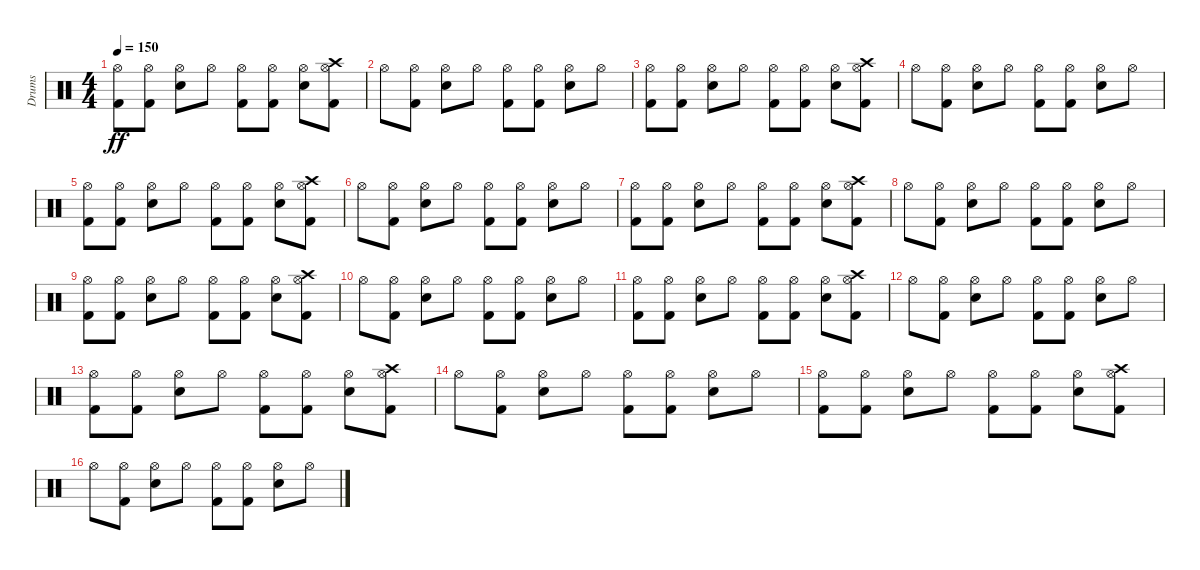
\track ("Drums" "Drums") {instrument percussion}
\staff {score}
\articulation defaults
\ts (4 4)
\tempo 150
\clef neutral
\ks c
("Kick (hit) 2" "Hi-Hat (open)").8{dy ff} ("Kick (hit) 2" "Hi-Hat (open)").8 ("Snare (hit) 2" "Hi-Hat (open)").8 "Hi-Hat (open)".8 ("Kick (hit) 2" "Hi-Hat (open)").8 ("Kick (hit) 2" "Hi-Hat (open)").8 ("Snare (hit) 2" "Hi-Hat (open)").8 ("Kick (hit) 2" "Hi-Hat (open)" "Crash high (hit)").8 |
"Hi-Hat (open)".8 ("Kick (hit) 2" "Hi-Hat (open)").8 ("Snare (hit) 2" "Hi-Hat (open)").8 "Hi-Hat (open)".8 ("Kick (hit) 2" "Hi-Hat (open)").8 ("Kick (hit) 2" "Hi-Hat (open)").8 ("Snare (hit) 2" "Hi-Hat (open)").8 "Hi-Hat (open)".8 |
("Kick (hit) 2" "Hi-Hat (open)").8 ("Kick (hit) 2" "Hi-Hat (open)").8 ("Snare (hit) 2" "Hi-Hat (open)").8 "Hi-Hat (open)".8 ("Kick (hit) 2" "Hi-Hat (open)").8 ("Kick (hit) 2" "Hi-Hat (open)").8 ("Snare (hit) 2" "Hi-Hat (open)").8 ("Kick (hit) 2" "Hi-Hat (open)" "Crash high (hit)").8 |
"Hi-Hat (open)".8 ("Kick (hit) 2" "Hi-Hat (open)").8 ("Snare (hit) 2" "Hi-Hat (open)").8 "Hi-Hat (open)".8 ("Kick (hit) 2" "Hi-Hat (open)").8 ("Kick (hit) 2" "Hi-Hat (open)").8 ("Snare (hit) 2" "Hi-Hat (open)").8 "Hi-Hat (open)".8 |
("Kick (hit) 2" "Hi-Hat (open)").8 ("Kick (hit) 2" "Hi-Hat (open)").8 ("Snare (hit) 2" "Hi-Hat (open)").8 "Hi-Hat (open)".8 ("Kick (hit) 2" "Hi-Hat (open)").8 ("Kick (hit) 2" "Hi-Hat (open)").8 ("Snare (hit) 2" "Hi-Hat (open)").8 ("Kick (hit) 2" "Hi-Hat (open)" "Crash high (hit)").8 |
"Hi-Hat (open)".8 ("Kick (hit) 2" "Hi-Hat (open)").8 ("Snare (hit) 2" "Hi-Hat (open)").8 "Hi-Hat (open)".8 ("Kick (hit) 2" "Hi-Hat (open)").8 ("Kick (hit) 2" "Hi-Hat (open)").8 ("Snare (hit) 2" "Hi-Hat (open)").8 "Hi-Hat (open)".8 |
("Kick (hit) 2" "Hi-Hat (open)").8 ("Kick (hit) 2" "Hi-Hat (open)").8 ("Snare (hit) 2" "Hi-Hat (open)").8 "Hi-Hat (open)".8 ("Kick (hit) 2" "Hi-Hat (open)").8 ("Kick (hit) 2" "Hi-Hat (open)").8 ("Snare (hit) 2" "Hi-Hat (open)").8 ("Kick (hit) 2" "Hi-Hat (open)" "Crash high (hit)").8 |
"Hi-Hat (open)".8 ("Kick (hit) 2" "Hi-Hat (open)").8 ("Snare (hit) 2" "Hi-Hat (open)").8 "Hi-Hat (open)".8 ("Kick (hit) 2" "Hi-Hat (open)").8 ("Kick (hit) 2" "Hi-Hat (open)").8 ("Snare (hit) 2" "Hi-Hat (open)").8 "Hi-Hat (open)".8 |
("Kick (hit) 2" "Hi-Hat (open)").8 ("Kick (hit) 2" "Hi-Hat (open)").8 ("Snare (hit) 2" "Hi-Hat (open)").8 "Hi-Hat (open)".8 ("Kick (hit) 2" "Hi-Hat (open)").8 ("Kick (hit) 2" "Hi-Hat (open)").8 ("Snare (hit) 2" "Hi-Hat (open)").8 ("Kick (hit) 2" "Hi-Hat (open)" "Crash high (hit)").8 |
"Hi-Hat (open)".8 ("Kick (hit) 2" "Hi-Hat (open)").8 ("Snare (hit) 2" "Hi-Hat (open)").8 "Hi-Hat (open)".8 ("Kick (hit) 2" "Hi-Hat (open)").8 ("Kick (hit) 2" "Hi-Hat (open)").8 ("Snare (hit) 2" "Hi-Hat (open)").8 "Hi-Hat (open)".8 |
("Kick (hit) 2" "Hi-Hat (open)").8 ("Kick (hit) 2" "Hi-Hat (open)").8 ("Snare (hit) 2" "Hi-Hat (open)").8 "Hi-Hat (open)".8 ("Kick (hit) 2" "Hi-Hat (open)").8 ("Kick (hit) 2" "Hi-Hat (open)").8 ("Snare (hit) 2" "Hi-Hat (open)").8 ("Kick (hit) 2" "Hi-Hat (open)" "Crash high (hit)").8 |
"Hi-Hat (open)".8 ("Kick (hit) 2" "Hi-Hat (open)").8 ("Snare (hit) 2" "Hi-Hat (open)").8 "Hi-Hat (open)".8 ("Kick (hit) 2" "Hi-Hat (open)").8 ("Kick (hit) 2" "Hi-Hat (open)").8 ("Snare (hit) 2" "Hi-Hat (open)").8 "Hi-Hat (open)".8 |
("Kick (hit) 2" "Hi-Hat (open)").8 ("Kick (hit) 2" "Hi-Hat (open)").8 ("Snare (hit) 2" "Hi-Hat (open)").8 "Hi-Hat (open)".8 ("Kick (hit) 2" "Hi-Hat (open)").8 ("Kick (hit) 2" "Hi-Hat (open)").8 ("Snare (hit) 2" "Hi-Hat (open)").8 ("Kick (hit) 2" "Hi-Hat (open)" "Crash high (hit)").8 |
"Hi-Hat (open)".8 ("Kick (hit) 2" "Hi-Hat (open)").8 ("Snare (hit) 2" "Hi-Hat (open)").8 "Hi-Hat (open)".8 ("Kick (hit) 2" "Hi-Hat (open)").8 ("Kick (hit) 2" "Hi-Hat (open)").8 ("Snare (hit) 2" "Hi-Hat (open)").8 "Hi-Hat (open)".8 |
("Kick (hit) 2" "Hi-Hat (open)").8 ("Kick (hit) 2" "Hi-Hat (open)").8 ("Snare (hit) 2" "Hi-Hat (open)").8 "Hi-Hat (open)".8 ("Kick (hit) 2" "Hi-Hat (open)").8 ("Kick (hit) 2" "Hi-Hat (open)").8 ("Snare (hit) 2" "Hi-Hat (open)").8 ("Kick (hit) 2" "Hi-Hat (open)" "Crash high (hit)").8 |
"Hi-Hat (open)".8 ("Kick (hit) 2" "Hi-Hat (open)").8 ("Snare (hit) 2" "Hi-Hat (open)").8 "Hi-Hat (open)".8 ("Kick (hit) 2" "Hi-Hat (open)").8 ("Kick (hit) 2" "Hi-Hat (open)").8 ("Snare (hit) 2" "Hi-Hat (open)").8 "Hi-Hat (open)".8
